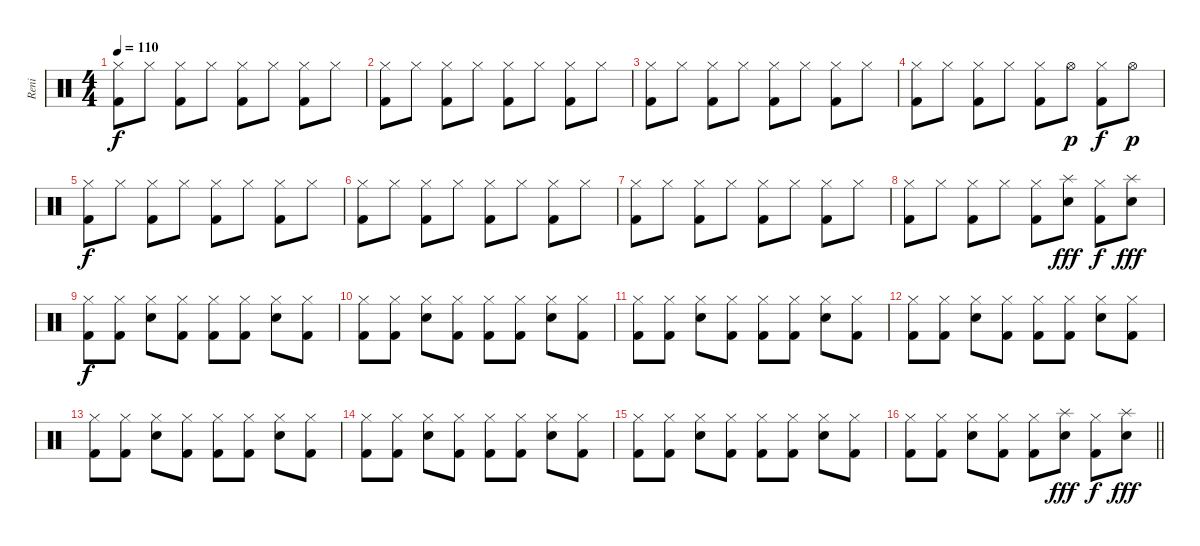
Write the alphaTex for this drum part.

\track ("Reni" "Reni") {instrument percussion}
\staff {score}
\articulation defaults
\ts (4 4)
\tempo 110
\clef neutral
\ks c
("Hi-Hat (closed)" "Kick (hit) 2").8{dy f} "Hi-Hat (closed)".8 ("Hi-Hat (closed)" "Kick (hit) 2").8 "Hi-Hat (closed)".8 ("Hi-Hat (closed)" "Kick (hit) 2").8 "Hi-Hat (closed)".8 ("Hi-Hat (closed)" "Kick (hit) 2").8 "Hi-Hat (closed)".8 |
("Hi-Hat (closed)" "Kick (hit) 2").8 "Hi-Hat (closed)".8 ("Hi-Hat (closed)" "Kick (hit) 2").8 "Hi-Hat (closed)".8 ("Hi-Hat (closed)" "Kick (hit) 2").8 "Hi-Hat (closed)".8 ("Hi-Hat (closed)" "Kick (hit) 2").8 "Hi-Hat (closed)".8 |
("Hi-Hat (closed)" "Kick (hit) 2").8 "Hi-Hat (closed)".8 ("Hi-Hat (closed)" "Kick (hit) 2").8 "Hi-Hat (closed)".8 ("Hi-Hat (closed)" "Kick (hit) 2").8 "Hi-Hat (closed)".8 ("Hi-Hat (closed)" "Kick (hit) 2").8 "Hi-Hat (closed)".8 |
("Hi-Hat (closed)" "Kick (hit) 2").8 "Hi-Hat (closed)".8 ("Hi-Hat (closed)" "Kick (hit) 2").8 "Hi-Hat (closed)".8 ("Hi-Hat (closed)" "Kick (hit) 2").8 "Hi-Hat (open)".8{dy p} ("Hi-Hat (closed)" "Kick (hit) 2").8{dy f} "Hi-Hat (open)".8{dy p} |
("Hi-Hat (closed)" "Kick (hit) 2").8{dy f} "Hi-Hat (closed)".8 ("Hi-Hat (closed)" "Kick (hit) 2").8 "Hi-Hat (closed)".8 ("Hi-Hat (closed)" "Kick (hit) 2").8 "Hi-Hat (closed)".8 ("Hi-Hat (closed)" "Kick (hit) 2").8 "Hi-Hat (closed)".8 |
("Hi-Hat (closed)" "Kick (hit) 2").8 "Hi-Hat (closed)".8 ("Hi-Hat (closed)" "Kick (hit) 2").8 "Hi-Hat (closed)".8 ("Hi-Hat (closed)" "Kick (hit) 2").8 "Hi-Hat (closed)".8 ("Hi-Hat (closed)" "Kick (hit) 2").8 "Hi-Hat (closed)".8 |
("Hi-Hat (closed)" "Kick (hit) 2").8 "Hi-Hat (closed)".8 ("Hi-Hat (closed)" "Kick (hit) 2").8 "Hi-Hat (closed)".8 ("Hi-Hat (closed)" "Kick (hit) 2").8 "Hi-Hat (closed)".8 ("Hi-Hat (closed)" "Kick (hit) 2").8 "Hi-Hat (closed)".8 |
("Hi-Hat (closed)" "Kick (hit) 2").8 "Hi-Hat (closed)".8 ("Hi-Hat (closed)" "Kick (hit) 2").8 "Hi-Hat (closed)".8 ("Hi-Hat (closed)" "Kick (hit) 2").8 ("Splash (hit)" "Electric Snare (hit)").8{dy fff} ("Hi-Hat (closed)" "Kick (hit) 2").8{dy f} ("Splash (hit)" "Electric Snare (hit)").8{dy fff} |
("Hi-Hat (closed)" "Kick (hit) 2").8{dy f} ("Hi-Hat (closed)" "Kick (hit) 2").8 ("Hi-Hat (closed)" "Electric Snare (hit)").8 ("Hi-Hat (closed)" "Kick (hit) 2").8 ("Hi-Hat (closed)" "Kick (hit) 2").8 ("Hi-Hat (closed)" "Kick (hit) 2").8 ("Hi-Hat (closed)" "Electric Snare (hit)").8 ("Hi-Hat (closed)" "Kick (hit) 2").8 |
("Hi-Hat (closed)" "Kick (hit) 2").8 ("Hi-Hat (closed)" "Kick (hit) 2").8 ("Hi-Hat (closed)" "Electric Snare (hit)").8 ("Hi-Hat (closed)" "Kick (hit) 2").8 ("Hi-Hat (closed)" "Kick (hit) 2").8 ("Hi-Hat (closed)" "Kick (hit) 2").8 ("Hi-Hat (closed)" "Electric Snare (hit)").8 ("Hi-Hat (closed)" "Kick (hit) 2").8 |
("Hi-Hat (closed)" "Kick (hit) 2").8 ("Hi-Hat (closed)" "Kick (hit) 2").8 ("Hi-Hat (closed)" "Electric Snare (hit)").8 ("Hi-Hat (closed)" "Kick (hit) 2").8 ("Hi-Hat (closed)" "Kick (hit) 2").8 ("Hi-Hat (closed)" "Kick (hit) 2").8 ("Hi-Hat (closed)" "Electric Snare (hit)").8 ("Hi-Hat (closed)" "Kick (hit) 2").8 |
("Hi-Hat (closed)" "Kick (hit) 2").8 ("Hi-Hat (closed)" "Kick (hit) 2").8 ("Hi-Hat (closed)" "Electric Snare (hit)").8 ("Hi-Hat (closed)" "Kick (hit) 2").8 ("Hi-Hat (closed)" "Kick (hit) 2").8 ("Hi-Hat (closed)" "Kick (hit) 2").8 ("Hi-Hat (closed)" "Electric Snare (hit)").8 ("Hi-Hat (closed)" "Kick (hit) 2").8 |
("Hi-Hat (closed)" "Kick (hit) 2").8 ("Hi-Hat (closed)" "Kick (hit) 2").8 ("Hi-Hat (closed)" "Electric Snare (hit)").8 ("Hi-Hat (closed)" "Kick (hit) 2").8 ("Hi-Hat (closed)" "Kick (hit) 2").8 ("Hi-Hat (closed)" "Kick (hit) 2").8 ("Hi-Hat (closed)" "Electric Snare (hit)").8 ("Hi-Hat (closed)" "Kick (hit) 2").8 |
("Hi-Hat (closed)" "Kick (hit) 2").8 ("Hi-Hat (closed)" "Kick (hit) 2").8 ("Hi-Hat (closed)" "Electric Snare (hit)").8 ("Hi-Hat (closed)" "Kick (hit) 2").8 ("Hi-Hat (closed)" "Kick (hit) 2").8 ("Hi-Hat (closed)" "Kick (hit) 2").8 ("Hi-Hat (closed)" "Electric Snare (hit)").8 ("Hi-Hat (closed)" "Kick (hit) 2").8 |
("Hi-Hat (closed)" "Kick (hit) 2").8 ("Hi-Hat (closed)" "Kick (hit) 2").8 ("Hi-Hat (closed)" "Electric Snare (hit)").8 ("Hi-Hat (closed)" "Kick (hit) 2").8 ("Hi-Hat (closed)" "Kick (hit) 2").8 ("Hi-Hat (closed)" "Kick (hit) 2").8 ("Hi-Hat (closed)" "Electric Snare (hit)").8 ("Hi-Hat (closed)" "Kick (hit) 2").8 |
\barLineRight lightlight
("Hi-Hat (closed)" "Kick (hit) 2").8 ("Hi-Hat (closed)" "Kick (hit) 2").8 ("Hi-Hat (closed)" "Electric Snare (hit)").8 ("Hi-Hat (closed)" "Kick (hit) 2").8 ("Hi-Hat (closed)" "Kick (hit) 2").8 ("Splash (hit)" "Electric Snare (hit)").8{dy fff} ("Hi-Hat (closed)" "Kick (hit) 2").8{dy f} ("Splash (hit)" "Electric Snare (hit)").8{dy fff}
